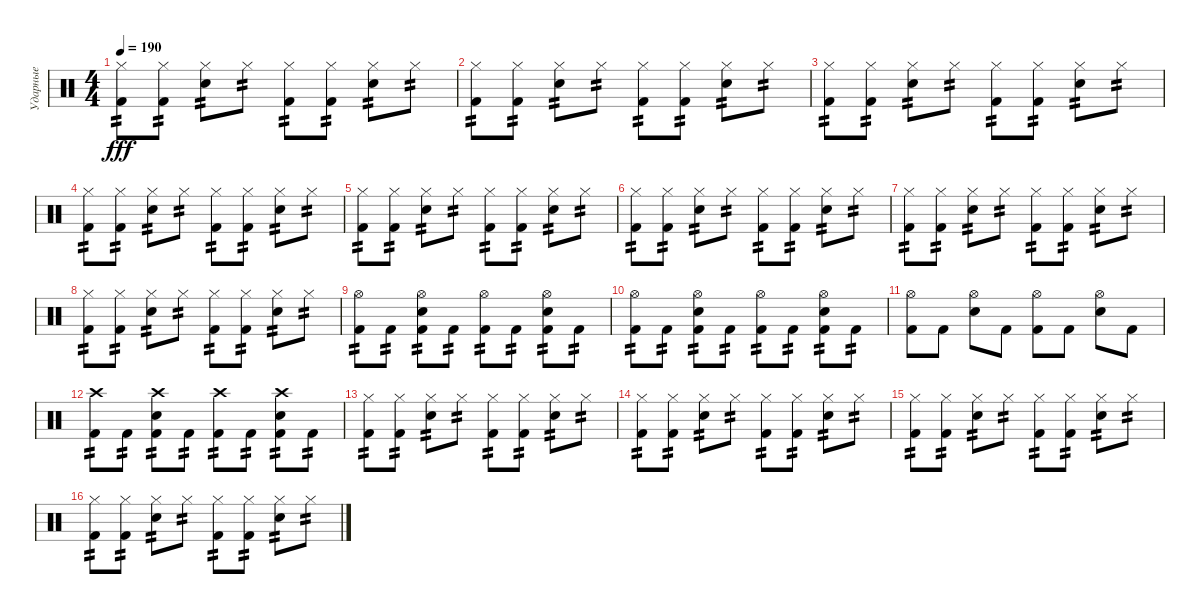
\track ("Ударные" "Ударные") {instrument percussion}
\staff {score}
\articulation defaults
\ts (4 4)
\tempo 190
\clef neutral
\ks c
("Hi-Hat (closed)" "Kick (hit) 2").8{tp 2 dy fff} ("Hi-Hat (closed)" "Kick (hit) 2").8{tp 2} ("Hi-Hat (closed)" "Snare (hit) 2").8{tp 2} "Hi-Hat (closed)".8{tp 2} ("Hi-Hat (closed)" "Kick (hit) 2").8{tp 2} ("Hi-Hat (closed)" "Kick (hit) 2").8{tp 2} ("Hi-Hat (closed)" "Snare (hit) 2").8{tp 2} "Hi-Hat (closed)".8{tp 2} |
("Hi-Hat (closed)" "Kick (hit) 2").8{tp 2} ("Hi-Hat (closed)" "Kick (hit) 2").8{tp 2} ("Hi-Hat (closed)" "Snare (hit) 2").8{tp 2} "Hi-Hat (closed)".8{tp 2} ("Hi-Hat (closed)" "Kick (hit) 2").8{tp 2} ("Hi-Hat (closed)" "Kick (hit) 2").8{tp 2} ("Hi-Hat (closed)" "Snare (hit) 2").8{tp 2} "Hi-Hat (closed)".8{tp 2} |
("Hi-Hat (closed)" "Kick (hit) 2").8{tp 2} ("Hi-Hat (closed)" "Kick (hit) 2").8{tp 2} ("Hi-Hat (closed)" "Snare (hit) 2").8{tp 2} "Hi-Hat (closed)".8{tp 2} ("Hi-Hat (closed)" "Kick (hit) 2").8{tp 2} ("Hi-Hat (closed)" "Kick (hit) 2").8{tp 2} ("Hi-Hat (closed)" "Snare (hit) 2").8{tp 2} "Hi-Hat (closed)".8{tp 2} |
("Hi-Hat (closed)" "Kick (hit) 2").8{tp 2} ("Hi-Hat (closed)" "Kick (hit) 2").8{tp 2} ("Hi-Hat (closed)" "Snare (hit) 2").8{tp 2} "Hi-Hat (closed)".8{tp 2} ("Hi-Hat (closed)" "Kick (hit) 2").8{tp 2} ("Hi-Hat (closed)" "Kick (hit) 2").8{tp 2} ("Hi-Hat (closed)" "Snare (hit) 2").8{tp 2} "Hi-Hat (closed)".8{tp 2} |
("Hi-Hat (closed)" "Kick (hit) 2").8{tp 2} ("Hi-Hat (closed)" "Kick (hit) 2").8{tp 2} ("Hi-Hat (closed)" "Snare (hit) 2").8{tp 2} "Hi-Hat (closed)".8{tp 2} ("Hi-Hat (closed)" "Kick (hit) 2").8{tp 2} ("Hi-Hat (closed)" "Kick (hit) 2").8{tp 2} ("Hi-Hat (closed)" "Snare (hit) 2").8{tp 2} "Hi-Hat (closed)".8{tp 2} |
("Hi-Hat (closed)" "Kick (hit) 2").8{tp 2} ("Hi-Hat (closed)" "Kick (hit) 2").8{tp 2} ("Hi-Hat (closed)" "Snare (hit) 2").8{tp 2} "Hi-Hat (closed)".8{tp 2} ("Hi-Hat (closed)" "Kick (hit) 2").8{tp 2} ("Hi-Hat (closed)" "Kick (hit) 2").8{tp 2} ("Hi-Hat (closed)" "Snare (hit) 2").8{tp 2} "Hi-Hat (closed)".8{tp 2} |
("Hi-Hat (closed)" "Kick (hit) 2").8{tp 2} ("Hi-Hat (closed)" "Kick (hit) 2").8{tp 2} ("Hi-Hat (closed)" "Snare (hit) 2").8{tp 2} "Hi-Hat (closed)".8{tp 2} ("Hi-Hat (closed)" "Kick (hit) 2").8{tp 2} ("Hi-Hat (closed)" "Kick (hit) 2").8{tp 2} ("Hi-Hat (closed)" "Snare (hit) 2").8{tp 2} "Hi-Hat (closed)".8{tp 2} |
("Hi-Hat (closed)" "Kick (hit) 2").8{tp 2} ("Hi-Hat (closed)" "Kick (hit) 2").8{tp 2} ("Hi-Hat (closed)" "Snare (hit) 2").8{tp 2} "Hi-Hat (closed)".8{tp 2} ("Hi-Hat (closed)" "Kick (hit) 2").8{tp 2} ("Hi-Hat (closed)" "Kick (hit) 2").8{tp 2} ("Hi-Hat (closed)" "Snare (hit) 2").8{tp 2} "Hi-Hat (closed)".8{tp 2} |
("Hi-Hat (open)" "Kick (hit) 2").8{tp 2} "Kick (hit) 2".8{tp 2} ("Hi-Hat (open)" "Snare (hit) 2" "Kick (hit) 2").8{tp 2} "Kick (hit) 2".8{tp 2} ("Hi-Hat (open)" "Kick (hit) 2").8{tp 2} "Kick (hit) 2".8{tp 2} ("Hi-Hat (open)" "Snare (hit) 2" "Kick (hit) 2").8{tp 2} "Kick (hit) 2".8{tp 2} |
("Hi-Hat (open)" "Kick (hit) 2").8{tp 2} "Kick (hit) 2".8{tp 2} ("Hi-Hat (open)" "Snare (hit) 2" "Kick (hit) 2").8{tp 2} "Kick (hit) 2".8{tp 2} ("Hi-Hat (open)" "Kick (hit) 2").8{tp 2} "Kick (hit) 2".8{tp 2} ("Hi-Hat (open)" "Snare (hit) 2" "Kick (hit) 2").8{tp 2} "Kick (hit) 2".8{tp 2} |
("Hi-Hat (open)" "Kick (hit) 2").8 "Kick (hit) 2".8 ("Hi-Hat (open)" "Snare (hit) 2").8 "Kick (hit) 2".8 ("Hi-Hat (open)" "Kick (hit) 2").8 "Kick (hit) 2".8 ("Hi-Hat (open)" "Snare (hit) 2").8 "Kick (hit) 2".8 |
("Crash high (hit)" "Kick (hit) 2").8{tp 2} "Kick (hit) 2".8{tp 2} ("Crash high (hit)" "Snare (hit) 2" "Kick (hit) 2").8{tp 2} "Kick (hit) 2".8{tp 2} ("Crash high (hit)" "Kick (hit) 2").8{tp 2} "Kick (hit) 2".8{tp 2} ("Crash high (hit)" "Snare (hit) 2" "Kick (hit) 2").8{tp 2} "Kick (hit) 2".8{tp 2} |
("Hi-Hat (closed)" "Kick (hit) 2").8{tp 2} ("Hi-Hat (closed)" "Kick (hit) 2").8{tp 2} ("Hi-Hat (closed)" "Snare (hit) 2").8{tp 2} "Hi-Hat (closed)".8{tp 2} ("Hi-Hat (closed)" "Kick (hit) 2").8{tp 2} ("Hi-Hat (closed)" "Kick (hit) 2").8{tp 2} ("Hi-Hat (closed)" "Snare (hit) 2").8{tp 2} "Hi-Hat (closed)".8{tp 2} |
("Hi-Hat (closed)" "Kick (hit) 2").8{tp 2} ("Hi-Hat (closed)" "Kick (hit) 2").8{tp 2} ("Hi-Hat (closed)" "Snare (hit) 2").8{tp 2} "Hi-Hat (closed)".8{tp 2} ("Hi-Hat (closed)" "Kick (hit) 2").8{tp 2} ("Hi-Hat (closed)" "Kick (hit) 2").8{tp 2} ("Hi-Hat (closed)" "Snare (hit) 2").8{tp 2} "Hi-Hat (closed)".8{tp 2} |
("Hi-Hat (closed)" "Kick (hit) 2").8{tp 2} ("Hi-Hat (closed)" "Kick (hit) 2").8{tp 2} ("Hi-Hat (closed)" "Snare (hit) 2").8{tp 2} "Hi-Hat (closed)".8{tp 2} ("Hi-Hat (closed)" "Kick (hit) 2").8{tp 2} ("Hi-Hat (closed)" "Kick (hit) 2").8{tp 2} ("Hi-Hat (closed)" "Snare (hit) 2").8{tp 2} "Hi-Hat (closed)".8{tp 2} |
("Hi-Hat (closed)" "Kick (hit) 2").8{tp 2} ("Hi-Hat (closed)" "Kick (hit) 2").8{tp 2} ("Hi-Hat (closed)" "Snare (hit) 2").8{tp 2} "Hi-Hat (closed)".8{tp 2} ("Hi-Hat (closed)" "Kick (hit) 2").8{tp 2} ("Hi-Hat (closed)" "Kick (hit) 2").8{tp 2} ("Hi-Hat (closed)" "Snare (hit) 2").8{tp 2} "Hi-Hat (closed)".8{tp 2}
